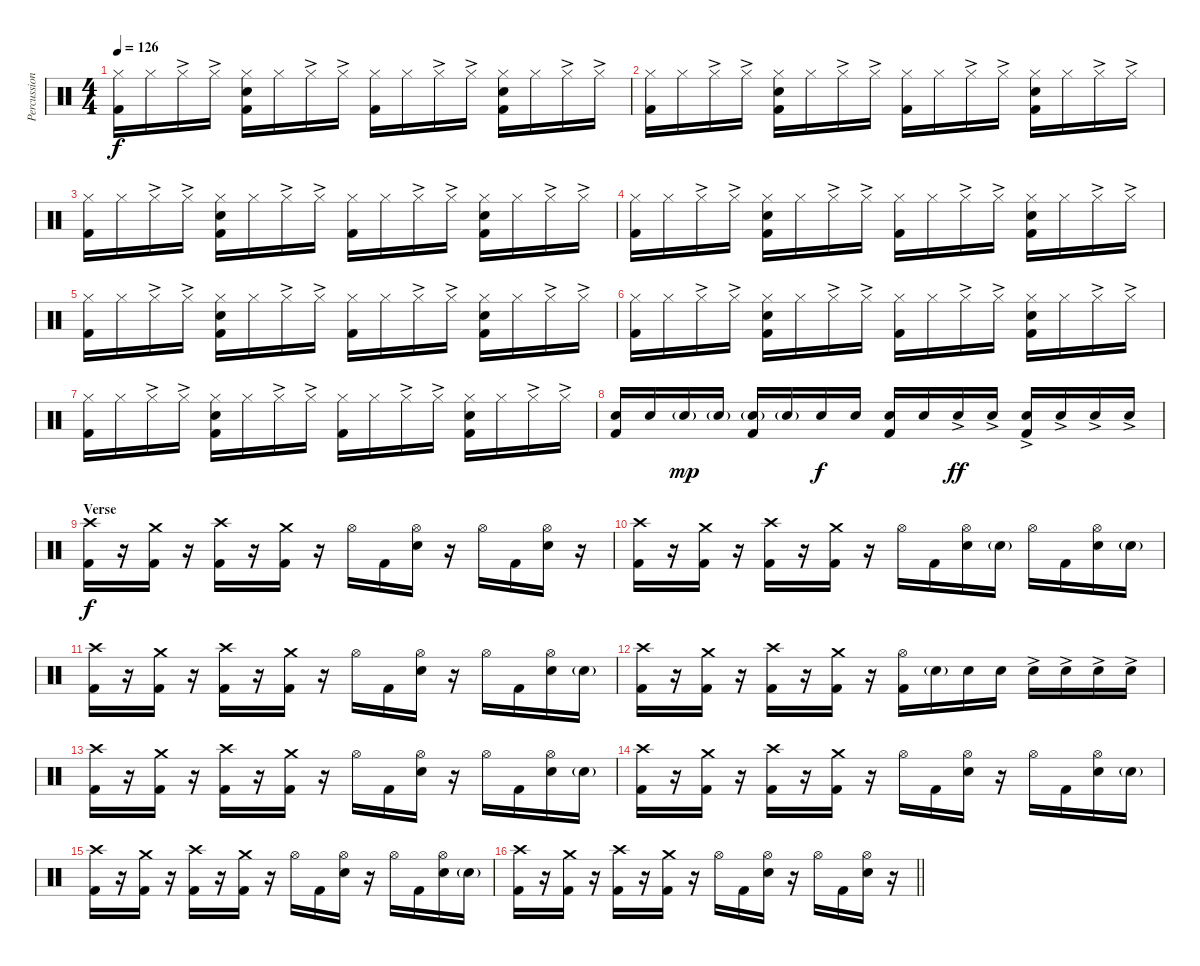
\track ("Percussion" "Percussion") {instrument percussion}
\staff {score}
\articulation defaults
\ts (4 4)
\tempo 126
\clef neutral
\ks c
("Hi-Hat (closed)" "Kick (hit) 2").16{dy f} "Hi-Hat (closed)".16 "Hi-Hat (closed)"{ac}.16 "Hi-Hat (closed)"{ac}.16 ("Hi-Hat (closed)" "Electric Snare (hit)" "Kick (hit) 2").16 "Hi-Hat (closed)".16 "Hi-Hat (closed)"{ac}.16 "Hi-Hat (closed)"{ac}.16 ("Hi-Hat (closed)" "Kick (hit) 2").16 "Hi-Hat (closed)".16 "Hi-Hat (closed)"{ac}.16 "Hi-Hat (closed)"{ac}.16 ("Hi-Hat (closed)" "Electric Snare (hit)" "Kick (hit) 2").16 "Hi-Hat (closed)".16 "Hi-Hat (closed)"{ac}.16 "Hi-Hat (closed)"{ac}.16 |
("Hi-Hat (closed)" "Kick (hit) 2").16 "Hi-Hat (closed)".16 "Hi-Hat (closed)"{ac}.16 "Hi-Hat (closed)"{ac}.16 ("Hi-Hat (closed)" "Electric Snare (hit)" "Kick (hit) 2").16 "Hi-Hat (closed)".16 "Hi-Hat (closed)"{ac}.16 "Hi-Hat (closed)"{ac}.16 ("Hi-Hat (closed)" "Kick (hit) 2").16 "Hi-Hat (closed)".16 "Hi-Hat (closed)"{ac}.16 "Hi-Hat (closed)"{ac}.16 ("Hi-Hat (closed)" "Electric Snare (hit)" "Kick (hit) 2").16 "Hi-Hat (closed)".16 "Hi-Hat (closed)"{ac}.16 "Hi-Hat (closed)"{ac}.16 |
("Hi-Hat (closed)" "Kick (hit) 2").16 "Hi-Hat (closed)".16 "Hi-Hat (closed)"{ac}.16 "Hi-Hat (closed)"{ac}.16 ("Hi-Hat (closed)" "Electric Snare (hit)" "Kick (hit) 2").16 "Hi-Hat (closed)".16 "Hi-Hat (closed)"{ac}.16 "Hi-Hat (closed)"{ac}.16 ("Hi-Hat (closed)" "Kick (hit) 2").16 "Hi-Hat (closed)".16 "Hi-Hat (closed)"{ac}.16 "Hi-Hat (closed)"{ac}.16 ("Hi-Hat (closed)" "Electric Snare (hit)" "Kick (hit) 2").16 "Hi-Hat (closed)".16 "Hi-Hat (closed)"{ac}.16 "Hi-Hat (closed)"{ac}.16 |
("Hi-Hat (closed)" "Kick (hit) 2").16 "Hi-Hat (closed)".16 "Hi-Hat (closed)"{ac}.16 "Hi-Hat (closed)"{ac}.16 ("Hi-Hat (closed)" "Electric Snare (hit)" "Kick (hit) 2").16 "Hi-Hat (closed)".16 "Hi-Hat (closed)"{ac}.16 "Hi-Hat (closed)"{ac}.16 ("Hi-Hat (closed)" "Kick (hit) 2").16 "Hi-Hat (closed)".16 "Hi-Hat (closed)"{ac}.16 "Hi-Hat (closed)"{ac}.16 ("Hi-Hat (closed)" "Electric Snare (hit)" "Kick (hit) 2").16 "Hi-Hat (closed)".16 "Hi-Hat (closed)"{ac}.16 "Hi-Hat (closed)"{ac}.16 |
("Hi-Hat (closed)" "Kick (hit) 2").16 "Hi-Hat (closed)".16 "Hi-Hat (closed)"{ac}.16 "Hi-Hat (closed)"{ac}.16 ("Hi-Hat (closed)" "Electric Snare (hit)" "Kick (hit) 2").16 "Hi-Hat (closed)".16 "Hi-Hat (closed)"{ac}.16 "Hi-Hat (closed)"{ac}.16 ("Hi-Hat (closed)" "Kick (hit) 2").16 "Hi-Hat (closed)".16 "Hi-Hat (closed)"{ac}.16 "Hi-Hat (closed)"{ac}.16 ("Hi-Hat (closed)" "Electric Snare (hit)" "Kick (hit) 2").16 "Hi-Hat (closed)".16 "Hi-Hat (closed)"{ac}.16 "Hi-Hat (closed)"{ac}.16 |
("Hi-Hat (closed)" "Kick (hit) 2").16 "Hi-Hat (closed)".16 "Hi-Hat (closed)"{ac}.16 "Hi-Hat (closed)"{ac}.16 ("Hi-Hat (closed)" "Electric Snare (hit)" "Kick (hit) 2").16 "Hi-Hat (closed)".16 "Hi-Hat (closed)"{ac}.16 "Hi-Hat (closed)"{ac}.16 ("Hi-Hat (closed)" "Kick (hit) 2").16 "Hi-Hat (closed)".16 "Hi-Hat (closed)"{ac}.16 "Hi-Hat (closed)"{ac}.16 ("Hi-Hat (closed)" "Electric Snare (hit)" "Kick (hit) 2").16 "Hi-Hat (closed)".16 "Hi-Hat (closed)"{ac}.16 "Hi-Hat (closed)"{ac}.16 |
("Hi-Hat (closed)" "Kick (hit) 2").16 "Hi-Hat (closed)".16 "Hi-Hat (closed)"{ac}.16 "Hi-Hat (closed)"{ac}.16 ("Hi-Hat (closed)" "Electric Snare (hit)" "Kick (hit) 2").16 "Hi-Hat (closed)".16 "Hi-Hat (closed)"{ac}.16 "Hi-Hat (closed)"{ac}.16 ("Hi-Hat (closed)" "Kick (hit) 2").16 "Hi-Hat (closed)".16 "Hi-Hat (closed)"{ac}.16 "Hi-Hat (closed)"{ac}.16 ("Hi-Hat (closed)" "Electric Snare (hit)" "Kick (hit) 2").16 "Hi-Hat (closed)".16 "Hi-Hat (closed)"{ac}.16 "Hi-Hat (closed)"{ac}.16 |
("Electric Snare (hit)" "Kick (hit) 2").16 "Electric Snare (hit)".16 "Electric Snare (hit)"{g}.16{dy mp} "Electric Snare (hit)"{g}.16 ("Electric Snare (hit)"{g} "Kick (hit) 2").16 "Electric Snare (hit)"{g}.16 "Electric Snare (hit)".16{dy f} "Electric Snare (hit)".16 ("Electric Snare (hit)" "Kick (hit) 2").16 "Electric Snare (hit)".16 "Electric Snare (hit)"{ac}.16{dy ff} "Electric Snare (hit)"{ac}.16 ("Electric Snare (hit)"{ac} "Kick (hit) 2").16 "Electric Snare (hit)"{ac}.16 "Electric Snare (hit)"{ac}.16 "Electric Snare (hit)"{ac}.16 |
\section ("" "Verse")
("Crash high (hit)" "Kick (hit) 2").16{dy f} r.16 ("Crash medium (hit)" "Kick (hit) 2").16 r.16 ("Crash high (hit)" "Kick (hit) 2").16 r.16 ("Crash medium (hit)" "Kick (hit) 2").16 r.16 "Hi-Hat (open)".16 "Kick (hit) 2".16 ("Hi-Hat (open)" "Electric Snare (hit)").16 r.16 "Hi-Hat (open)".16 "Kick (hit) 2".16 ("Hi-Hat (open)" "Electric Snare (hit)").16 r.16 |
("Crash high (hit)" "Kick (hit) 2").16 r.16 ("Crash medium (hit)" "Kick (hit) 2").16 r.16 ("Crash high (hit)" "Kick (hit) 2").16 r.16 ("Crash medium (hit)" "Kick (hit) 2").16 r.16 "Hi-Hat (open)".16 "Kick (hit) 2".16 ("Hi-Hat (open)" "Electric Snare (hit)").16 "Electric Snare (hit)"{g}.16 "Hi-Hat (open)".16 "Kick (hit) 2".16 ("Hi-Hat (open)" "Electric Snare (hit)").16 "Electric Snare (hit)"{g}.16 |
("Crash high (hit)" "Kick (hit) 2").16 r.16 ("Crash medium (hit)" "Kick (hit) 2").16 r.16 ("Crash high (hit)" "Kick (hit) 2").16 r.16 ("Crash medium (hit)" "Kick (hit) 2").16 r.16 "Hi-Hat (open)".16 "Kick (hit) 2".16 ("Hi-Hat (open)" "Electric Snare (hit)").16 r.16 "Hi-Hat (open)".16 "Kick (hit) 2".16 ("Hi-Hat (open)" "Electric Snare (hit)").16 "Electric Snare (hit)"{g}.16 |
("Crash high (hit)" "Kick (hit) 2").16 r.16 ("Crash medium (hit)" "Kick (hit) 2").16 r.16 ("Crash high (hit)" "Kick (hit) 2").16 r.16 ("Crash medium (hit)" "Kick (hit) 2").16 r.16 ("Hi-Hat (open)" "Kick (hit) 2").16 "Electric Snare (hit)"{g}.16 "Electric Snare (hit)".16 "Electric Snare (hit)".16 "Electric Snare (hit)"{ac}.16 "Electric Snare (hit)"{ac}.16 "Electric Snare (hit)"{ac}.16 "Electric Snare (hit)"{ac}.16 |
("Crash high (hit)" "Kick (hit) 2").16 r.16 ("Crash medium (hit)" "Kick (hit) 2").16 r.16 ("Crash high (hit)" "Kick (hit) 2").16 r.16 ("Crash medium (hit)" "Kick (hit) 2").16 r.16 "Hi-Hat (open)".16 "Kick (hit) 2".16 ("Hi-Hat (open)" "Electric Snare (hit)").16 r.16 "Hi-Hat (open)".16 "Kick (hit) 2".16 ("Hi-Hat (open)" "Electric Snare (hit)").16 "Electric Snare (hit)"{g}.16 |
("Crash high (hit)" "Kick (hit) 2").16 r.16 ("Crash medium (hit)" "Kick (hit) 2").16 r.16 ("Crash high (hit)" "Kick (hit) 2").16 r.16 ("Crash medium (hit)" "Kick (hit) 2").16 r.16 "Hi-Hat (open)".16 "Kick (hit) 2".16 ("Hi-Hat (open)" "Electric Snare (hit)").16 r.16 "Hi-Hat (open)".16 "Kick (hit) 2".16 ("Hi-Hat (open)" "Electric Snare (hit)").16 "Electric Snare (hit)"{g}.16 |
("Crash high (hit)" "Kick (hit) 2").16 r.16 ("Crash medium (hit)" "Kick (hit) 2").16 r.16 ("Crash high (hit)" "Kick (hit) 2").16 r.16 ("Crash medium (hit)" "Kick (hit) 2").16 r.16 "Hi-Hat (open)".16 "Kick (hit) 2".16 ("Hi-Hat (open)" "Electric Snare (hit)").16 r.16 "Hi-Hat (open)".16 "Kick (hit) 2".16 ("Hi-Hat (open)" "Electric Snare (hit)").16 "Electric Snare (hit)"{g}.16 |
\barLineRight lightlight
("Crash high (hit)" "Kick (hit) 2").16 r.16 ("Crash medium (hit)" "Kick (hit) 2").16 r.16 ("Crash high (hit)" "Kick (hit) 2").16 r.16 ("Crash medium (hit)" "Kick (hit) 2").16 r.16 "Hi-Hat (open)".16 "Kick (hit) 2".16 ("Hi-Hat (open)" "Electric Snare (hit)").16 r.16 "Hi-Hat (open)".16 "Kick (hit) 2".16 ("Hi-Hat (open)" "Electric Snare (hit)").16 r.16
